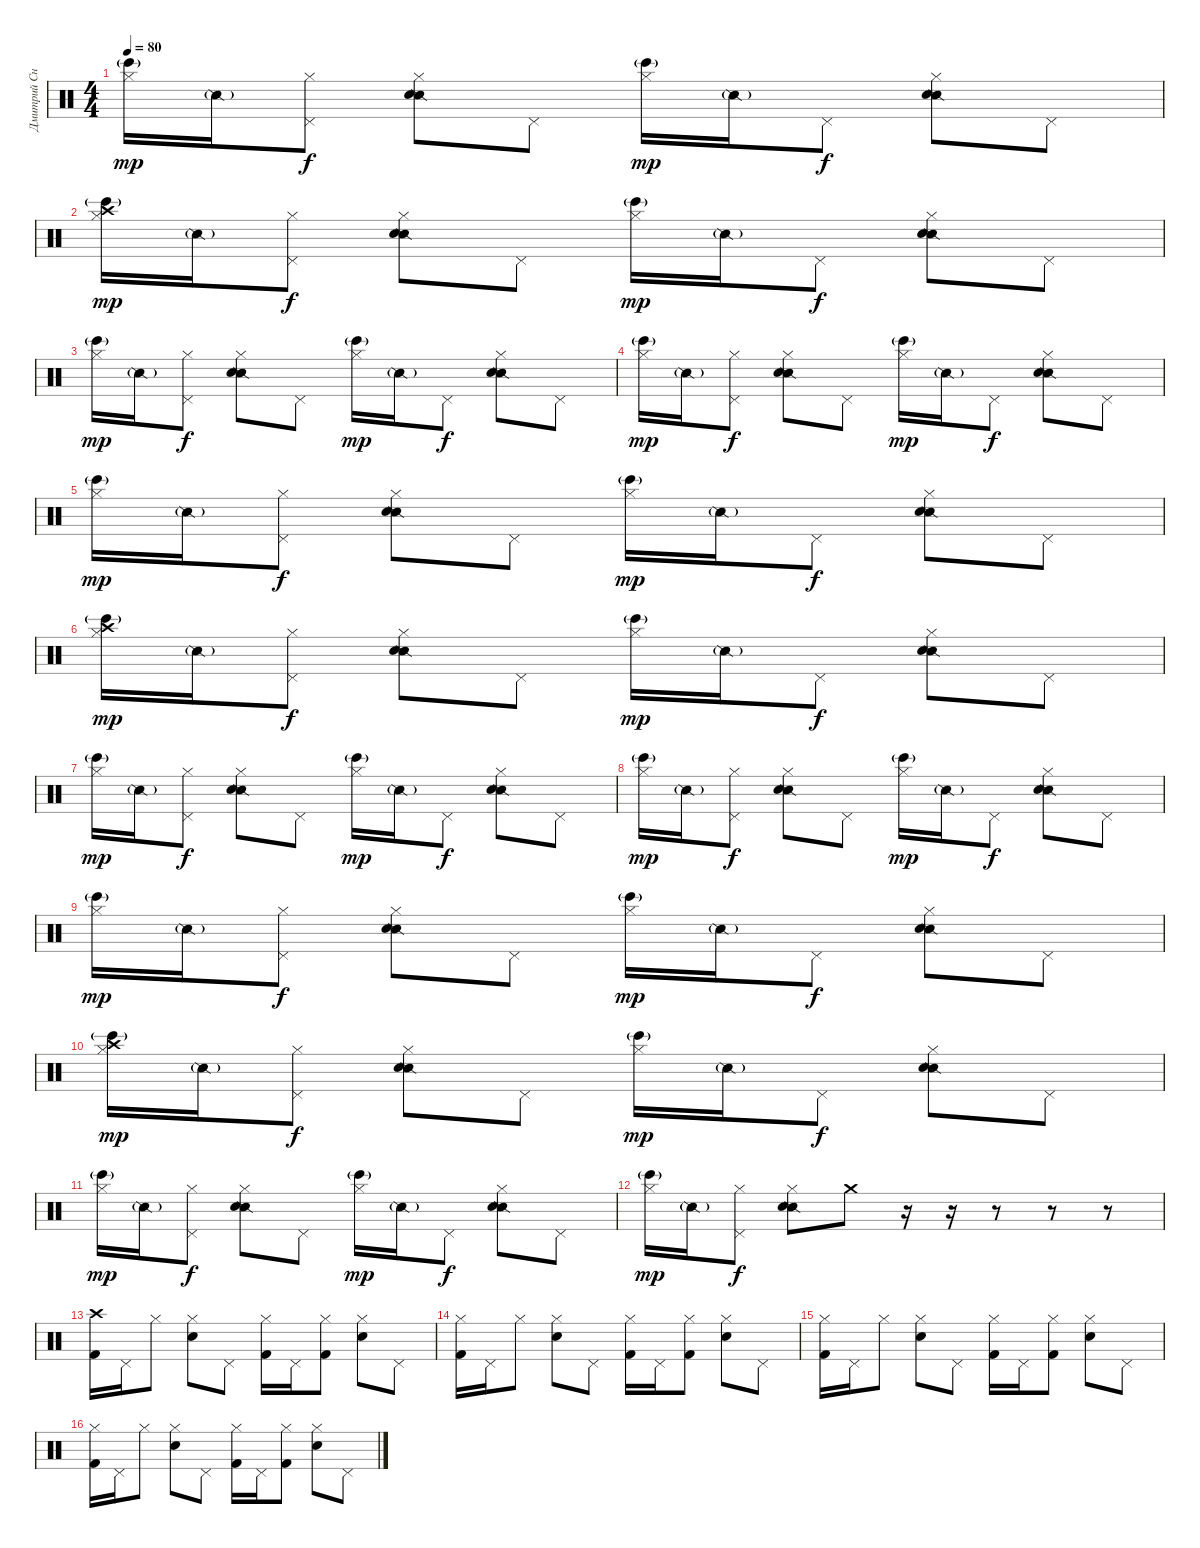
\track ("Дмитрий Снэйк" "Дмитрий Сн") {instrument percussion}
\staff {score}
\articulation defaults
\ts (4 4)
\tempo 80
\clef neutral
\ks c
("Hi-Hat (closed)" "Bongo High (hit)"{g}).16{dy mp} "Snare (side stick) 2"{g}.16 ("Pedal Hi-Hat (hit)" "Hi-Hat (closed)").8{dy f} ("Hi-Hat (closed)" "Snare (side stick) 2" "Snare (hit) 2").8 "Pedal Hi-Hat (hit)".8 ("Hi-Hat (closed)" "Bongo High (hit)"{g}).16{dy mp} "Snare (side stick) 2"{g}.16 "Pedal Hi-Hat (hit)".8{dy f} ("Hi-Hat (closed)" "Snare (side stick) 2" "Snare (hit) 2").8 "Pedal Hi-Hat (hit)".8 |
("Hi-Hat (closed)" "Bongo High (hit)"{g} "Crash high (hit)").16{dy mp} "Snare (side stick) 2"{g}.16 ("Pedal Hi-Hat (hit)" "Hi-Hat (closed)").8{dy f} ("Hi-Hat (closed)" "Snare (side stick) 2" "Snare (hit) 2").8 "Pedal Hi-Hat (hit)".8 ("Hi-Hat (closed)" "Bongo High (hit)"{g}).16{dy mp} "Snare (side stick) 2"{g}.16 "Pedal Hi-Hat (hit)".8{dy f} ("Hi-Hat (closed)" "Snare (side stick) 2" "Snare (hit) 2").8 "Pedal Hi-Hat (hit)".8 |
("Hi-Hat (closed)" "Bongo High (hit)"{g}).16{dy mp} "Snare (side stick) 2"{g}.16 ("Pedal Hi-Hat (hit)" "Hi-Hat (closed)").8{dy f} ("Hi-Hat (closed)" "Snare (side stick) 2" "Snare (hit) 2").8 "Pedal Hi-Hat (hit)".8 ("Hi-Hat (closed)" "Bongo High (hit)"{g}).16{dy mp} "Snare (side stick) 2"{g}.16 "Pedal Hi-Hat (hit)".8{dy f} ("Hi-Hat (closed)" "Snare (side stick) 2" "Snare (hit) 2").8 "Pedal Hi-Hat (hit)".8 |
("Hi-Hat (closed)" "Bongo High (hit)"{g}).16{dy mp} "Snare (side stick) 2"{g}.16 ("Pedal Hi-Hat (hit)" "Hi-Hat (closed)").8{dy f} ("Hi-Hat (closed)" "Snare (side stick) 2" "Snare (hit) 2").8 "Pedal Hi-Hat (hit)".8 ("Hi-Hat (closed)" "Bongo High (hit)"{g}).16{dy mp} "Snare (side stick) 2"{g}.16 "Pedal Hi-Hat (hit)".8{dy f} ("Hi-Hat (closed)" "Snare (side stick) 2" "Snare (hit) 2").8 "Pedal Hi-Hat (hit)".8 |
("Hi-Hat (closed)" "Bongo High (hit)"{g}).16{dy mp} "Snare (side stick) 2"{g}.16 ("Pedal Hi-Hat (hit)" "Hi-Hat (closed)").8{dy f} ("Hi-Hat (closed)" "Snare (side stick) 2" "Snare (hit) 2").8 "Pedal Hi-Hat (hit)".8 ("Hi-Hat (closed)" "Bongo High (hit)"{g}).16{dy mp} "Snare (side stick) 2"{g}.16 "Pedal Hi-Hat (hit)".8{dy f} ("Hi-Hat (closed)" "Snare (side stick) 2" "Snare (hit) 2").8 "Pedal Hi-Hat (hit)".8 |
("Hi-Hat (closed)" "Bongo High (hit)"{g} "Crash high (hit)").16{dy mp} "Snare (side stick) 2"{g}.16 ("Pedal Hi-Hat (hit)" "Hi-Hat (closed)").8{dy f} ("Hi-Hat (closed)" "Snare (side stick) 2" "Snare (hit) 2").8 "Pedal Hi-Hat (hit)".8 ("Hi-Hat (closed)" "Bongo High (hit)"{g}).16{dy mp} "Snare (side stick) 2"{g}.16 "Pedal Hi-Hat (hit)".8{dy f} ("Hi-Hat (closed)" "Snare (side stick) 2" "Snare (hit) 2").8 "Pedal Hi-Hat (hit)".8 |
("Hi-Hat (closed)" "Bongo High (hit)"{g}).16{dy mp} "Snare (side stick) 2"{g}.16 ("Pedal Hi-Hat (hit)" "Hi-Hat (closed)").8{dy f} ("Hi-Hat (closed)" "Snare (side stick) 2" "Snare (hit) 2").8 "Pedal Hi-Hat (hit)".8 ("Hi-Hat (closed)" "Bongo High (hit)"{g}).16{dy mp} "Snare (side stick) 2"{g}.16 "Pedal Hi-Hat (hit)".8{dy f} ("Hi-Hat (closed)" "Snare (side stick) 2" "Snare (hit) 2").8 "Pedal Hi-Hat (hit)".8 |
("Hi-Hat (closed)" "Bongo High (hit)"{g}).16{dy mp} "Snare (side stick) 2"{g}.16 ("Pedal Hi-Hat (hit)" "Hi-Hat (closed)").8{dy f} ("Hi-Hat (closed)" "Snare (side stick) 2" "Snare (hit) 2").8 "Pedal Hi-Hat (hit)".8 ("Hi-Hat (closed)" "Bongo High (hit)"{g}).16{dy mp} "Snare (side stick) 2"{g}.16 "Pedal Hi-Hat (hit)".8{dy f} ("Hi-Hat (closed)" "Snare (side stick) 2" "Snare (hit) 2").8 "Pedal Hi-Hat (hit)".8 |
("Hi-Hat (closed)" "Bongo High (hit)"{g}).16{dy mp} "Snare (side stick) 2"{g}.16 ("Pedal Hi-Hat (hit)" "Hi-Hat (closed)").8{dy f} ("Hi-Hat (closed)" "Snare (side stick) 2" "Snare (hit) 2").8 "Pedal Hi-Hat (hit)".8 ("Hi-Hat (closed)" "Bongo High (hit)"{g}).16{dy mp} "Snare (side stick) 2"{g}.16 "Pedal Hi-Hat (hit)".8{dy f} ("Hi-Hat (closed)" "Snare (side stick) 2" "Snare (hit) 2").8 "Pedal Hi-Hat (hit)".8 |
("Hi-Hat (closed)" "Bongo High (hit)"{g} "Crash high (hit)").16{dy mp} "Snare (side stick) 2"{g}.16 ("Pedal Hi-Hat (hit)" "Hi-Hat (closed)").8{dy f} ("Hi-Hat (closed)" "Snare (side stick) 2" "Snare (hit) 2").8 "Pedal Hi-Hat (hit)".8 ("Hi-Hat (closed)" "Bongo High (hit)"{g}).16{dy mp} "Snare (side stick) 2"{g}.16 "Pedal Hi-Hat (hit)".8{dy f} ("Hi-Hat (closed)" "Snare (side stick) 2" "Snare (hit) 2").8 "Pedal Hi-Hat (hit)".8 |
("Hi-Hat (closed)" "Bongo High (hit)"{g}).16{dy mp} "Snare (side stick) 2"{g}.16 ("Pedal Hi-Hat (hit)" "Hi-Hat (closed)").8{dy f} ("Hi-Hat (closed)" "Snare (side stick) 2" "Snare (hit) 2").8 "Pedal Hi-Hat (hit)".8 ("Hi-Hat (closed)" "Bongo High (hit)"{g}).16{dy mp} "Snare (side stick) 2"{g}.16 "Pedal Hi-Hat (hit)".8{dy f} ("Hi-Hat (closed)" "Snare (side stick) 2" "Snare (hit) 2").8 "Pedal Hi-Hat (hit)".8 |
("Hi-Hat (closed)" "Bongo High (hit)"{g}).16{dy mp} "Snare (side stick) 2"{g}.16 ("Pedal Hi-Hat (hit)" "Hi-Hat (closed)").8{dy f} ("Hi-Hat (closed)" "Snare (side stick) 2" "Snare (hit) 2").8 "Crash medium (hit)".8 r.16 r.16 r.8 r.8 r.8 |
("Crash high (hit)" "Kick (hit) 2").16 "Pedal Hi-Hat (hit)".16 "Hi-Hat (closed)".8 ("Hi-Hat (closed)" "Snare (hit) 2").8 "Pedal Hi-Hat (hit)".8 ("Hi-Hat (closed)" "Kick (hit) 2").16 "Pedal Hi-Hat (hit)".16 ("Hi-Hat (closed)" "Kick (hit) 2").8 ("Hi-Hat (closed)" "Snare (hit) 2").8 "Pedal Hi-Hat (hit)".8 |
("Hi-Hat (closed)" "Kick (hit) 2").16 "Pedal Hi-Hat (hit)".16 "Hi-Hat (closed)".8 ("Hi-Hat (closed)" "Snare (hit) 2").8 "Pedal Hi-Hat (hit)".8 ("Hi-Hat (closed)" "Kick (hit) 2").16 "Pedal Hi-Hat (hit)".16 ("Hi-Hat (closed)" "Kick (hit) 2").8 ("Hi-Hat (closed)" "Snare (hit) 2").8 "Pedal Hi-Hat (hit)".8 |
("Hi-Hat (closed)" "Kick (hit) 2").16 "Pedal Hi-Hat (hit)".16 "Hi-Hat (closed)".8 ("Hi-Hat (closed)" "Snare (hit) 2").8 "Pedal Hi-Hat (hit)".8 ("Hi-Hat (closed)" "Kick (hit) 2").16 "Pedal Hi-Hat (hit)".16 ("Hi-Hat (closed)" "Kick (hit) 2").8 ("Hi-Hat (closed)" "Snare (hit) 2").8 "Pedal Hi-Hat (hit)".8 |
("Hi-Hat (closed)" "Kick (hit) 2").16 "Pedal Hi-Hat (hit)".16 "Hi-Hat (closed)".8 ("Hi-Hat (closed)" "Snare (hit) 2").8 "Pedal Hi-Hat (hit)".8 ("Hi-Hat (closed)" "Kick (hit) 2").16 "Pedal Hi-Hat (hit)".16 ("Hi-Hat (closed)" "Kick (hit) 2").8 ("Hi-Hat (closed)" "Snare (hit) 2").8 "Pedal Hi-Hat (hit)".8
